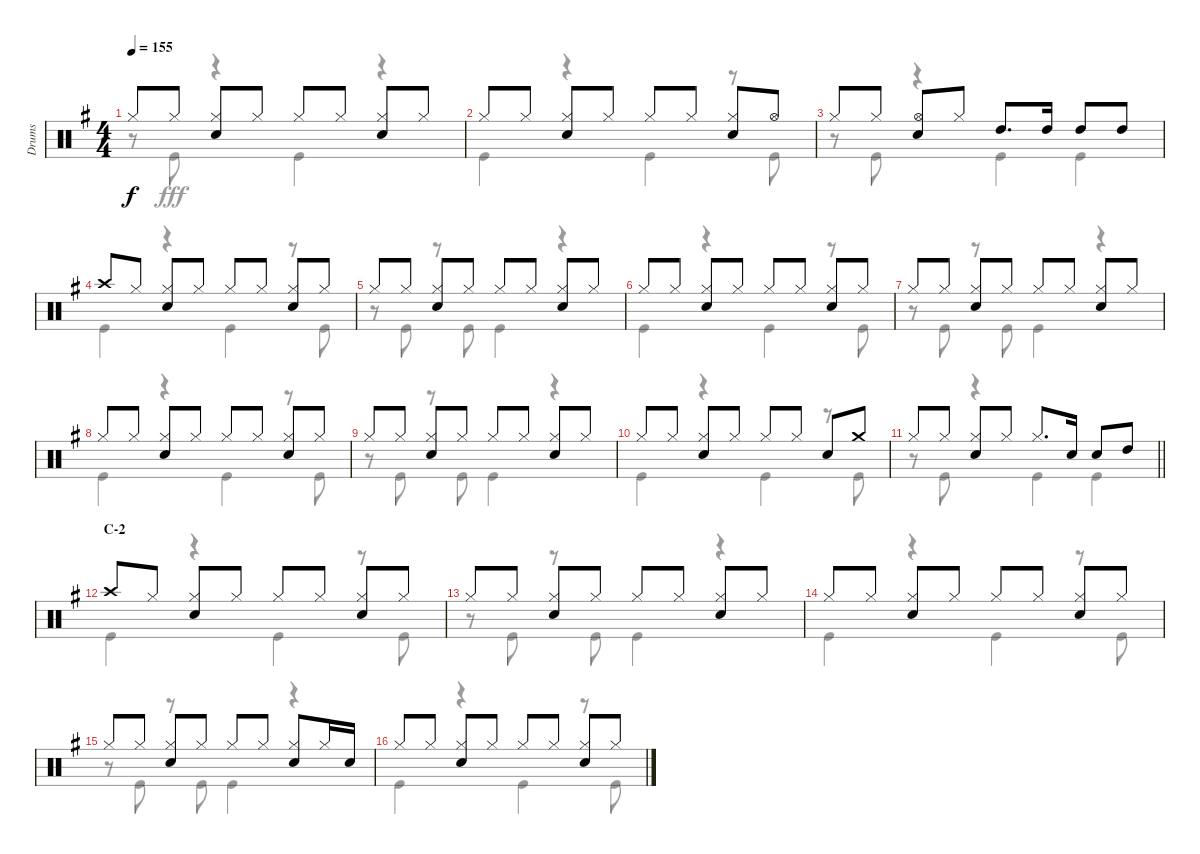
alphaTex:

\track ("Drums" "Drums") {instrument percussion}
\staff {score}
\articulation defaults
\voice
\ts (4 4)
\tempo 155
\clef neutral
\ks g "Hi-Hat (closed)".8{dy f} "Hi-Hat (closed)".8
("Hi-Hat (closed)" "Snare (hit) 2").8 "Hi-Hat (closed)".8 "Hi-Hat (closed)".8 "Hi-Hat (closed)".8 ("Hi-Hat (closed)" "Snare (hit) 2").8 "Hi-Hat (closed)".8 |
"Hi-Hat (closed)".8 "Hi-Hat (closed)".8 ("Hi-Hat (closed)" "Snare (hit) 2").8 "Hi-Hat (closed)".8 "Hi-Hat (closed)".8 "Hi-Hat (closed)".8 ("Hi-Hat (closed)" "Snare (hit) 2").8 "Hi-Hat (open)".8 |
"Hi-Hat (closed)".8 "Hi-Hat (closed)".8 ("Hi-Hat (open)" "Snare (hit) 2").8 "Hi-Hat (closed)".8 "High Tom (hit)".8{d} "High Tom (hit)".16 "High Tom (hit)".8 "High Tom (hit)".8 |
"Crash high (hit)".8 "Hi-Hat (closed)".8 ("Hi-Hat (closed)" "Snare (hit) 2").8 "Hi-Hat (closed)".8 "Hi-Hat (closed)".8 "Hi-Hat (closed)".8 ("Hi-Hat (closed)" "Snare (hit) 2").8 "Hi-Hat (closed)".8 |
"Hi-Hat (closed)".8 "Hi-Hat (closed)".8 ("Hi-Hat (closed)" "Snare (hit) 2").8 "Hi-Hat (closed)".8 "Hi-Hat (closed)".8 "Hi-Hat (closed)".8 ("Hi-Hat (closed)" "Snare (hit) 2").8 "Hi-Hat (closed)".8 |
"Hi-Hat (closed)".8 "Hi-Hat (closed)".8 ("Hi-Hat (closed)" "Snare (hit) 2").8 "Hi-Hat (closed)".8 "Hi-Hat (closed)".8 "Hi-Hat (closed)".8 ("Hi-Hat (closed)" "Snare (hit) 2").8 "Hi-Hat (closed)".8 |
"Hi-Hat (closed)".8 "Hi-Hat (closed)".8 ("Hi-Hat (closed)" "Snare (hit) 2").8 "Hi-Hat (closed)".8 "Hi-Hat (closed)".8 "Hi-Hat (closed)".8 ("Hi-Hat (closed)" "Snare (hit) 2").8 "Hi-Hat (closed)".8 |
"Hi-Hat (closed)".8 "Hi-Hat (closed)".8 ("Hi-Hat (closed)" "Snare (hit) 2").8 "Hi-Hat (closed)".8 "Hi-Hat (closed)".8 "Hi-Hat (closed)".8 ("Hi-Hat (closed)" "Snare (hit) 2").8 "Hi-Hat (closed)".8 |
"Hi-Hat (closed)".8 "Hi-Hat (closed)".8 ("Hi-Hat (closed)" "Snare (hit) 2").8 "Hi-Hat (closed)".8 "Hi-Hat (closed)".8 "Hi-Hat (closed)".8 ("Hi-Hat (closed)" "Snare (hit) 2").8 "Hi-Hat (closed)".8 |
"Hi-Hat (closed)".8 "Hi-Hat (closed)".8 ("Hi-Hat (closed)" "Snare (hit) 2").8 "Hi-Hat (closed)".8 "Hi-Hat (closed)".8 "Hi-Hat (closed)".8 "Snare (hit) 2".8 "Crash medium (hit)".8 |
\barLineRight lightlight "Hi-Hat (closed)".8 "Hi-Hat (closed)".8
("Hi-Hat (closed)" "Snare (hit) 2").8 "Hi-Hat (closed)".8 "Hi-Hat (closed)".8{d} "Snare (hit) 2".16 "Snare (hit) 2".8 "High Tom (hit)".8 |
\section ("" "C-2")
"Crash high (hit)".8 "Hi-Hat (closed)".8 ("Hi-Hat (closed)" "Snare (hit) 2").8 "Hi-Hat (closed)".8 "Hi-Hat (closed)".8 "Hi-Hat (closed)".8 ("Hi-Hat (closed)" "Snare (hit) 2").8 "Hi-Hat (closed)".8 |
"Hi-Hat (closed)".8 "Hi-Hat (closed)".8 ("Hi-Hat (closed)" "Snare (hit) 2").8 "Hi-Hat (closed)".8 "Hi-Hat (closed)".8 "Hi-Hat (closed)".8 ("Hi-Hat (closed)" "Snare (hit) 2").8 "Hi-Hat (closed)".8 |
"Hi-Hat (closed)".8 "Hi-Hat (closed)".8 ("Hi-Hat (closed)" "Snare (hit) 2").8 "Hi-Hat (closed)".8 "Hi-Hat (closed)".8 "Hi-Hat (closed)".8 ("Hi-Hat (closed)" "Snare (hit) 2").8 "Hi-Hat (closed)".8 |
"Hi-Hat (closed)".8 "Hi-Hat (closed)".8 ("Hi-Hat (closed)" "Snare (hit) 2").8 "Hi-Hat (closed)".8 "Hi-Hat (closed)".8 "Hi-Hat (closed)".8 ("Hi-Hat (closed)" "Snare (hit) 2").8 "Hi-Hat (closed)".16 "Snare (hit) 2".16 |
"Hi-Hat (closed)".8 "Hi-Hat (closed)".8 ("Hi-Hat (closed)" "Snare (hit) 2").8 "Hi-Hat (closed)".8 "Hi-Hat (closed)".8 "Hi-Hat (closed)".8 ("Hi-Hat (closed)" "Snare (hit) 2").8 "Hi-Hat (closed)".8
\voice
\clef neutral
\ottava regular
\simile none
\ks g
r.8{dy fff} "Kick (hit)".8 r.4 "Kick (hit)".4 r.4 |
"Kick (hit)".4 r.4 "Kick (hit)".4 r.8 "Kick (hit)".8 |
r.8 "Kick (hit)".8 r.4 "Kick (hit)".4 "Kick (hit)".4 |
"Kick (hit)".4 r.4 "Kick (hit)".4 r.8 "Kick (hit)".8 |
r.8 "Kick (hit)".8 r.8 "Kick (hit)".8 "Kick (hit)".4 r.4 |
"Kick (hit)".4 r.4 "Kick (hit)".4 r.8 "Kick (hit)".8 |
r.8 "Kick (hit)".8 r.8 "Kick (hit)".8 "Kick (hit)".4 r.4 |
"Kick (hit)".4 r.4 "Kick (hit)".4 r.8 "Kick (hit)".8 |
r.8 "Kick (hit)".8 r.8 "Kick (hit)".8 "Kick (hit)".4 r.4 |
"Kick (hit)".4 r.4 "Kick (hit)".4 r.8 "Kick (hit)".8 |
\barLineRight lightlight
r.8 "Kick (hit)".8 r.4 "Kick (hit)".4 "Kick (hit)".4 |
"Kick (hit)".4 r.4 "Kick (hit)".4 r.8 "Kick (hit)".8 |
r.8 "Kick (hit)".8 r.8 "Kick (hit)".8 "Kick (hit)".4 r.4 |
"Kick (hit)".4 r.4 "Kick (hit)".4 r.8 "Kick (hit)".8 |
r.8 "Kick (hit)".8 r.8 "Kick (hit)".8 "Kick (hit)".4 r.4 |
"Kick (hit)".4 r.4 "Kick (hit)".4 r.8 "Kick (hit)".8
